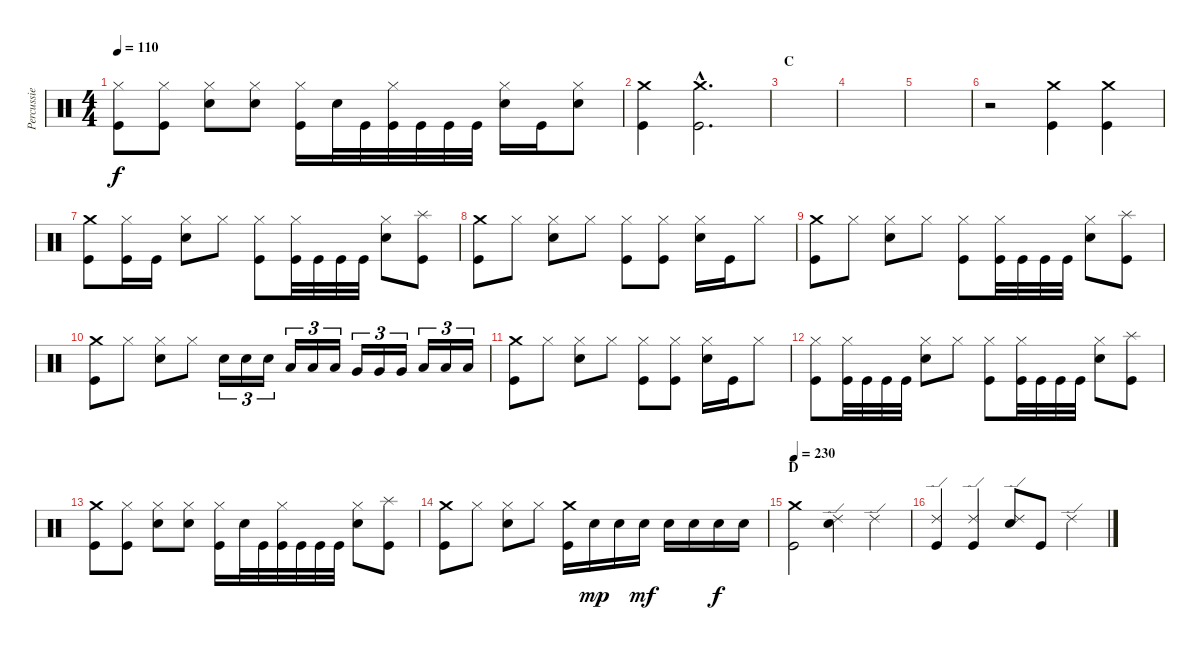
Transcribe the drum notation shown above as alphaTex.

\track ("Percussie" "Percussie") {instrument percussion}
\staff {score}
\articulation defaults
\ts (4 4)
\tempo 110
\clef neutral
\ks c
("Hi-Hat (closed)" "Kick (hit)").8{dy f} ("Hi-Hat (closed)" "Kick (hit)").8 ("Hi-Hat (closed)" "Electric Snare (hit)").8 ("Hi-Hat (closed)" "Electric Snare (hit)").8 ("Hi-Hat (closed)" "Kick (hit)").16 "Electric Snare (hit)".32 "Kick (hit)".32 ("Hi-Hat (closed)" "Kick (hit)").32 "Kick (hit)".32 "Kick (hit)".32 "Kick (hit)".32 ("Hi-Hat (closed)" "Electric Snare (hit)").16 "Kick (hit)".16 ("Hi-Hat (closed)" "Electric Snare (hit)").8 |
("Crash medium (hit)" "Kick (hit)").4 ("Crash medium (hit)"{hac} "Kick (hit)"{hac}).2{d} |
\section ("" "C")
|
|
|
r.2 ("Crash medium (hit)" "Kick (hit)").4 ("Crash medium (hit)" "Kick (hit)").4 |
("Crash medium (hit)" "Kick (hit)").8 ("Hi-Hat (closed)" "Kick (hit)").16 "Kick (hit)".16 ("Hi-Hat (closed)" "Electric Snare (hit)").8 "Hi-Hat (closed)".8 ("Hi-Hat (closed)" "Kick (hit)").8 ("Hi-Hat (closed)" "Kick (hit)").32 "Kick (hit)".32 "Kick (hit)".32 "Kick (hit)".32 ("Hi-Hat (closed)" "Electric Snare (hit)").8 ("Splash (hit)" "Kick (hit)").8 |
("Crash medium (hit)" "Kick (hit)").8 "Hi-Hat (closed)".8 ("Hi-Hat (closed)" "Electric Snare (hit)").8 "Hi-Hat (closed)".8 ("Hi-Hat (closed)" "Kick (hit)").8 ("Hi-Hat (closed)" "Kick (hit)").8 ("Hi-Hat (closed)" "Electric Snare (hit)").16 "Kick (hit)".16 "Hi-Hat (closed)".8 |
("Crash medium (hit)" "Kick (hit)").8 "Hi-Hat (closed)".8 ("Hi-Hat (closed)" "Electric Snare (hit)").8 "Hi-Hat (closed)".8 ("Hi-Hat (closed)" "Kick (hit)").8 ("Hi-Hat (closed)" "Kick (hit)").32 "Kick (hit)".32 "Kick (hit)".32 "Kick (hit)".32 ("Hi-Hat (closed)" "Electric Snare (hit)").8 ("Splash (hit)" "Kick (hit)").8 |
("Crash medium (hit)" "Kick (hit)").8 "Hi-Hat (closed)".8 ("Hi-Hat (closed)" "Electric Snare (hit)").8 "Hi-Hat (closed)".8 "Electric Snare (hit)".16{tu (3 2)} "Electric Snare (hit)".16{tu (3 2)} "Electric Snare (hit)".16{tu (3 2)} "Low Tom (hit)".16{tu (3 2)} "Low Tom (hit)".16{tu (3 2)} "Low Tom (hit)".16{tu (3 2)} "Very Low Tom (hit)".16{tu (3 2)} "Very Low Tom (hit)".16{tu (3 2)} "Very Low Tom (hit)".16{tu (3 2)} "Low Floor Tom (hit)".16{tu (3 2)} "Low Floor Tom (hit)".16{tu (3 2)} "Low Floor Tom (hit)".16{tu (3 2)} |
("Crash medium (hit)" "Kick (hit)").8 "Hi-Hat (closed)".8 ("Hi-Hat (closed)" "Electric Snare (hit)").8 "Hi-Hat (closed)".8 ("Hi-Hat (closed)" "Kick (hit)").8 ("Hi-Hat (closed)" "Kick (hit)").8 ("Hi-Hat (closed)" "Electric Snare (hit)").16 "Kick (hit)".16 "Hi-Hat (closed)".8 |
("Hi-Hat (closed)" "Kick (hit)").8 ("Hi-Hat (closed)" "Kick (hit)").32 "Kick (hit)".32 "Kick (hit)".32 "Kick (hit)".32 ("Hi-Hat (closed)" "Electric Snare (hit)").8 "Hi-Hat (closed)".8 ("Hi-Hat (closed)" "Kick (hit)").8 ("Hi-Hat (closed)" "Kick (hit)").32 "Kick (hit)".32 "Kick (hit)".32 "Kick (hit)".32 ("Hi-Hat (closed)" "Electric Snare (hit)").8 ("Splash (hit)" "Kick (hit)").8 |
("Crash medium (hit)" "Kick (hit)").8 ("Hi-Hat (closed)" "Kick (hit)").8 ("Hi-Hat (closed)" "Electric Snare (hit)").8 ("Hi-Hat (closed)" "Electric Snare (hit)").8 ("Hi-Hat (closed)" "Kick (hit)").16 "Electric Snare (hit)".32 "Kick (hit)".32 ("Hi-Hat (closed)" "Kick (hit)").32 "Kick (hit)".32 "Kick (hit)".32 "Kick (hit)".32 ("Hi-Hat (closed)" "Electric Snare (hit)").8 ("Splash (hit)" "Kick (hit)").8 |
("Crash medium (hit)" "Kick (hit)").8 "Hi-Hat (closed)".8 ("Hi-Hat (closed)" "Electric Snare (hit)").8 "Hi-Hat (closed)".8 ("Crash medium (hit)" "Kick (hit)").16 "Electric Snare (hit)".16{dy mp} "Electric Snare (hit)".16 "Electric Snare (hit)".16{dy mf} "Electric Snare (hit)".16 "Electric Snare (hit)".16 "Electric Snare (hit)".16{dy f} "Electric Snare (hit)".16 |
\section ("" "D")
\tempo 230
("Crash medium (hit)" "Kick (hit)").2 ("Ride (edge) 2" "Electric Snare (hit)").4 "Ride (edge) 2".4 |
("Ride (edge) 2" "Kick (hit)").4 ("Ride (edge) 2" "Kick (hit)").4 ("Ride (edge) 2" "Electric Snare (hit)").8 "Kick (hit)".8 "Ride (edge) 2".4
